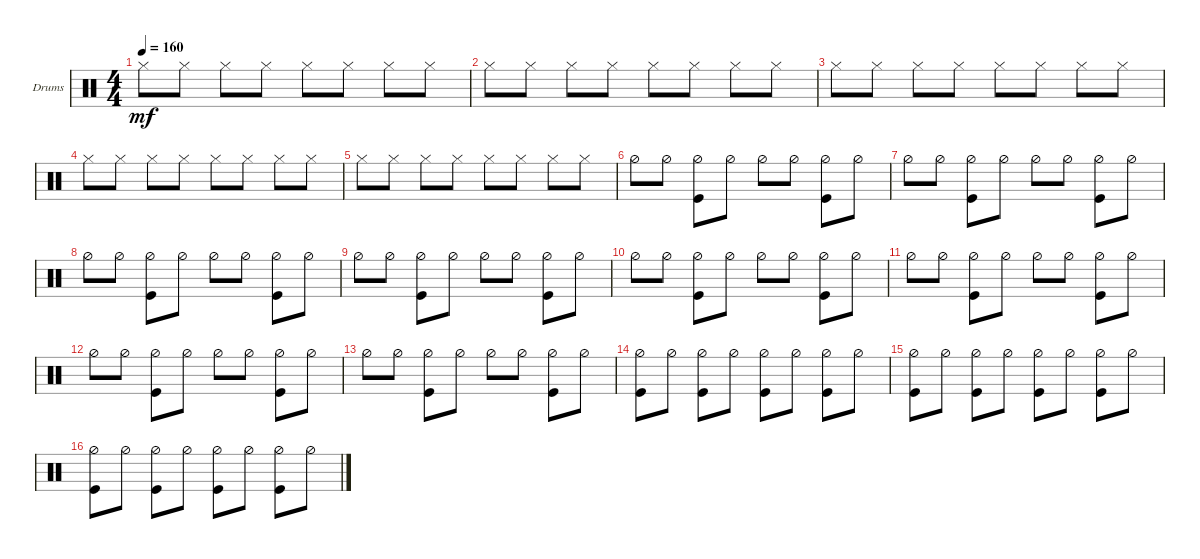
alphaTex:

\defaultSystemsLayout 4
\bracketExtendMode groupsimilarinstruments
\firstSystemTrackNameOrientation horizontal
\otherSystemsTrackNameOrientation horizontal
\track ("Drumkit" "Drums") {instrument percussion}
\staff {score}
\articulation defaults
\ts (4 4)
\tempo 160
\clef neutral
\ks c "Hi-Hat (closed)".8{dy mf} "Hi-Hat (closed)".8 "Hi-Hat (closed)".8 "Hi-Hat (closed)".8 "Hi-Hat (closed)".8 "Hi-Hat (closed)".8 "Hi-Hat (closed)".8 "Hi-Hat (closed)".8
|
"Hi-Hat (closed)".8 "Hi-Hat (closed)".8 "Hi-Hat (closed)".8 "Hi-Hat (closed)".8 "Hi-Hat (closed)".8 "Hi-Hat (closed)".8 "Hi-Hat (closed)".8 "Hi-Hat (closed)".8 |
"Hi-Hat (closed)".8 "Hi-Hat (closed)".8 "Hi-Hat (closed)".8 "Hi-Hat (closed)".8 "Hi-Hat (closed)".8 "Hi-Hat (closed)".8 "Hi-Hat (closed)".8 "Hi-Hat (closed)".8 |
"Hi-Hat (closed)".8 "Hi-Hat (closed)".8 "Hi-Hat (closed)".8 "Hi-Hat (closed)".8 "Hi-Hat (closed)".8 "Hi-Hat (closed)".8 "Hi-Hat (closed)".8 "Hi-Hat (closed)".8 |
"Hi-Hat (closed)".8 "Hi-Hat (closed)".8 "Hi-Hat (closed)".8 "Hi-Hat (closed)".8 "Hi-Hat (closed)".8 "Hi-Hat (closed)".8 "Hi-Hat (closed)".8 "Hi-Hat (closed)".8 |
"Hi-Hat (half)".8 "Hi-Hat (half)".8 ("Hi-Hat (half)" "Kick (hit)").8 "Hi-Hat (half)".8 "Hi-Hat (half)".8 "Hi-Hat (half)".8 ("Hi-Hat (half)" "Kick (hit)").8 "Hi-Hat (half)".8 |
"Hi-Hat (half)".8 "Hi-Hat (half)".8 ("Hi-Hat (half)" "Kick (hit)").8 "Hi-Hat (half)".8 "Hi-Hat (half)".8 "Hi-Hat (half)".8 ("Hi-Hat (half)" "Kick (hit)").8 "Hi-Hat (half)".8 |
"Hi-Hat (half)".8 "Hi-Hat (half)".8 ("Hi-Hat (half)" "Kick (hit)").8 "Hi-Hat (half)".8 "Hi-Hat (half)".8 "Hi-Hat (half)".8 ("Hi-Hat (half)" "Kick (hit)").8 "Hi-Hat (half)".8 |
"Hi-Hat (half)".8 "Hi-Hat (half)".8 ("Hi-Hat (half)" "Kick (hit)").8 "Hi-Hat (half)".8 "Hi-Hat (half)".8 "Hi-Hat (half)".8 ("Hi-Hat (half)" "Kick (hit)").8 "Hi-Hat (half)".8 |
"Hi-Hat (half)".8 "Hi-Hat (half)".8 ("Hi-Hat (half)" "Kick (hit)").8 "Hi-Hat (half)".8 "Hi-Hat (half)".8 "Hi-Hat (half)".8 ("Hi-Hat (half)" "Kick (hit)").8 "Hi-Hat (half)".8 |
"Hi-Hat (half)".8 "Hi-Hat (half)".8 ("Hi-Hat (half)" "Kick (hit)").8 "Hi-Hat (half)".8 "Hi-Hat (half)".8 "Hi-Hat (half)".8 ("Hi-Hat (half)" "Kick (hit)").8 "Hi-Hat (half)".8 |
"Hi-Hat (half)".8 "Hi-Hat (half)".8 ("Hi-Hat (half)" "Kick (hit)").8 "Hi-Hat (half)".8 "Hi-Hat (half)".8 "Hi-Hat (half)".8 ("Hi-Hat (half)" "Kick (hit)").8 "Hi-Hat (half)".8 |
"Hi-Hat (half)".8 "Hi-Hat (half)".8 ("Hi-Hat (half)" "Kick (hit)").8 "Hi-Hat (half)".8 "Hi-Hat (half)".8 "Hi-Hat (half)".8 ("Hi-Hat (half)" "Kick (hit)").8 "Hi-Hat (half)".8 |
("Hi-Hat (half)" "Kick (hit)").8 "Hi-Hat (half)".8 ("Hi-Hat (half)" "Kick (hit)").8 "Hi-Hat (half)".8 ("Hi-Hat (half)" "Kick (hit)").8 "Hi-Hat (half)".8 ("Hi-Hat (half)" "Kick (hit)").8 "Hi-Hat (half)".8 |
("Hi-Hat (half)" "Kick (hit)").8 "Hi-Hat (half)".8 ("Hi-Hat (half)" "Kick (hit)").8 "Hi-Hat (half)".8 ("Hi-Hat (half)" "Kick (hit)").8 "Hi-Hat (half)".8 ("Hi-Hat (half)" "Kick (hit)").8 "Hi-Hat (half)".8 |
("Hi-Hat (half)" "Kick (hit)").8 "Hi-Hat (half)".8 ("Hi-Hat (half)" "Kick (hit)").8 "Hi-Hat (half)".8 ("Hi-Hat (half)" "Kick (hit)").8 "Hi-Hat (half)".8 ("Hi-Hat (half)" "Kick (hit)").8 "Hi-Hat (half)".8
